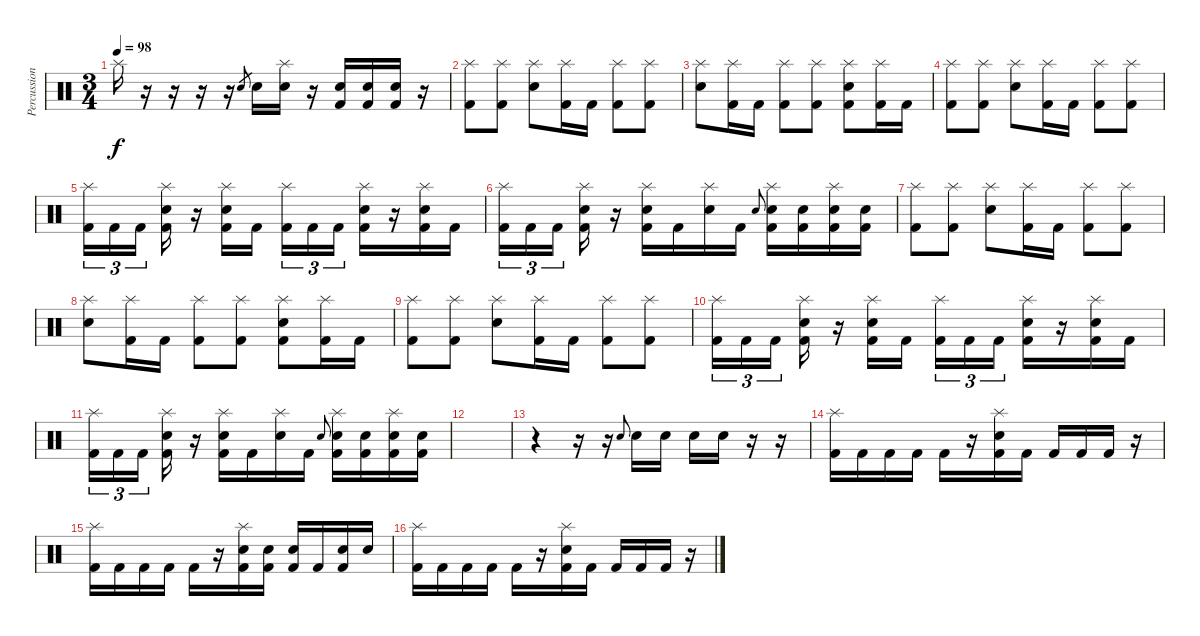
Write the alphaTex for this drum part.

\track ("Percussion" "Percussion") {instrument percussion}
\staff {score}
\articulation defaults
\ts (3 4)
\tempo 98
\clef neutral
\ks c "Splash (hit)".16{dy f}
r.16 r.16 r.16 r.16 "Snare (hit) 2".8{gr} "Snare (hit) 2".16 ("Splash (hit)" "Snare (hit) 2").16 r.16 ("Snare (hit) 2" "Kick (hit) 2").16 ("Snare (hit) 2" "Kick (hit) 2").16 ("Snare (hit) 2" "Kick (hit) 2").16 r.16 |
("Splash (hit)" "Kick (hit) 2").8 ("Splash (hit)" "Kick (hit) 2").8 ("Splash (hit)" "Snare (hit) 2").8 ("Splash (hit)" "Kick (hit) 2").16 "Kick (hit) 2".16 ("Splash (hit)" "Kick (hit) 2").8 ("Splash (hit)" "Kick (hit) 2").8 |
("Splash (hit)" "Snare (hit) 2").8 ("Splash (hit)" "Kick (hit) 2").16 "Kick (hit) 2".16 ("Splash (hit)" "Kick (hit) 2").8 ("Splash (hit)" "Kick (hit) 2").8 ("Splash (hit)" "Snare (hit) 2" "Kick (hit) 2").8 ("Splash (hit)" "Kick (hit) 2").16 "Kick (hit) 2".16 |
("Splash (hit)" "Kick (hit) 2").8 ("Splash (hit)" "Kick (hit) 2").8 ("Splash (hit)" "Snare (hit) 2").8 ("Splash (hit)" "Kick (hit) 2").16 "Kick (hit) 2".16 ("Splash (hit)" "Kick (hit) 2").8 ("Splash (hit)" "Kick (hit) 2").8 |
("Splash (hit)" "Kick (hit) 2").16{tu (3 2)} "Kick (hit) 2".16{tu (3 2)} "Kick (hit) 2".16{tu (3 2) beam splitsecondary} ("Splash (hit)" "Snare (hit) 2" "Kick (hit) 2").16 r.16 ("Splash (hit)" "Snare (hit) 2" "Kick (hit) 2").16 "Kick (hit) 2".16{beam splitsecondary} ("Splash (hit)" "Kick (hit) 2").16{tu (3 2)} "Kick (hit) 2".16{tu (3 2)} "Kick (hit) 2".16{tu (3 2)} ("Splash (hit)" "Snare (hit) 2" "Kick (hit) 2").16 r.16 ("Splash (hit)" "Snare (hit) 2" "Kick (hit) 2").16 "Kick (hit) 2".16 |
("Splash (hit)" "Kick (hit) 2").16{tu (3 2)} "Kick (hit) 2".16{tu (3 2)} "Kick (hit) 2".16{tu (3 2) beam splitsecondary} ("Splash (hit)" "Snare (hit) 2" "Kick (hit) 2").16 r.16 ("Splash (hit)" "Snare (hit) 2" "Kick (hit) 2").16 "Kick (hit) 2".16 ("Splash (hit)" "Snare (hit) 2").16 "Kick (hit) 2".16 "Snare (hit) 2".8{gr onbeat} ("Splash (hit)" "Snare (hit) 2" "Kick (hit) 2").16 ("Snare (hit) 2" "Kick (hit) 2").16 ("Splash (hit)" "Snare (hit) 2" "Kick (hit) 2").16 ("Snare (hit) 2" "Kick (hit) 2").16 |
("Splash (hit)" "Kick (hit) 2").8 ("Splash (hit)" "Kick (hit) 2").8 ("Splash (hit)" "Snare (hit) 2").8 ("Splash (hit)" "Kick (hit) 2").16 "Kick (hit) 2".16 ("Splash (hit)" "Kick (hit) 2").8 ("Splash (hit)" "Kick (hit) 2").8 |
("Splash (hit)" "Snare (hit) 2").8 ("Splash (hit)" "Kick (hit) 2").16 "Kick (hit) 2".16 ("Splash (hit)" "Kick (hit) 2").8 ("Splash (hit)" "Kick (hit) 2").8 ("Splash (hit)" "Snare (hit) 2" "Kick (hit) 2").8 ("Splash (hit)" "Kick (hit) 2").16 "Kick (hit) 2".16 |
("Splash (hit)" "Kick (hit) 2").8 ("Splash (hit)" "Kick (hit) 2").8 ("Splash (hit)" "Snare (hit) 2").8 ("Splash (hit)" "Kick (hit) 2").16 "Kick (hit) 2".16 ("Splash (hit)" "Kick (hit) 2").8 ("Splash (hit)" "Kick (hit) 2").8 |
("Splash (hit)" "Kick (hit) 2").16{tu (3 2)} "Kick (hit) 2".16{tu (3 2)} "Kick (hit) 2".16{tu (3 2) beam splitsecondary} ("Splash (hit)" "Snare (hit) 2" "Kick (hit) 2").16 r.16 ("Splash (hit)" "Snare (hit) 2" "Kick (hit) 2").16 "Kick (hit) 2".16{beam splitsecondary} ("Splash (hit)" "Kick (hit) 2").16{tu (3 2)} "Kick (hit) 2".16{tu (3 2)} "Kick (hit) 2".16{tu (3 2)} ("Splash (hit)" "Snare (hit) 2" "Kick (hit) 2").16 r.16 ("Splash (hit)" "Snare (hit) 2" "Kick (hit) 2").16 "Kick (hit) 2".16 |
("Splash (hit)" "Kick (hit) 2").16{tu (3 2)} "Kick (hit) 2".16{tu (3 2)} "Kick (hit) 2".16{tu (3 2) beam splitsecondary} ("Splash (hit)" "Snare (hit) 2" "Kick (hit) 2").16 r.16 ("Splash (hit)" "Snare (hit) 2" "Kick (hit) 2").16 "Kick (hit) 2".16 ("Splash (hit)" "Snare (hit) 2").16 "Kick (hit) 2".16 "Snare (hit) 2".8{gr onbeat} ("Splash (hit)" "Snare (hit) 2" "Kick (hit) 2").16 ("Snare (hit) 2" "Kick (hit) 2").16 ("Splash (hit)" "Snare (hit) 2" "Kick (hit) 2").16 ("Snare (hit) 2" "Kick (hit) 2").16 |
|
r.4 r.16 r.16 "Snare (hit) 2".8{gr onbeat} "Snare (hit) 2".16 "Snare (hit) 2".16 "Snare (hit) 2".16 "Snare (hit) 2".16 r.16 r.16 |
("Splash (hit)" "Kick (hit) 2").16 "Kick (hit) 2".16 "Kick (hit) 2".16 "Kick (hit) 2".16 "Kick (hit) 2".16 r.16 ("Splash (hit)" "Snare (hit) 2" "Kick (hit) 2").16 "Kick (hit) 2".16 "Kick (hit) 2".16 "Kick (hit) 2".16 "Kick (hit) 2".16 r.16 |
("Splash (hit)" "Kick (hit) 2").16 "Kick (hit) 2".16 "Kick (hit) 2".16 "Kick (hit) 2".16 "Kick (hit) 2".16 r.16 ("Splash (hit)" "Snare (hit) 2" "Kick (hit) 2").16 ("Snare (hit) 2" "Kick (hit) 2").16 ("Snare (hit) 2" "Kick (hit) 2").16 "Kick (hit) 2".16 ("Snare (hit) 2" "Kick (hit) 2").16 "Snare (hit) 2".16 |
("Splash (hit)" "Kick (hit) 2").16 "Kick (hit) 2".16 "Kick (hit) 2".16 "Kick (hit) 2".16 "Kick (hit) 2".16 r.16 ("Splash (hit)" "Snare (hit) 2" "Kick (hit) 2").16 "Kick (hit) 2".16 "Kick (hit) 2".16 "Kick (hit) 2".16 "Kick (hit) 2".16 r.16
